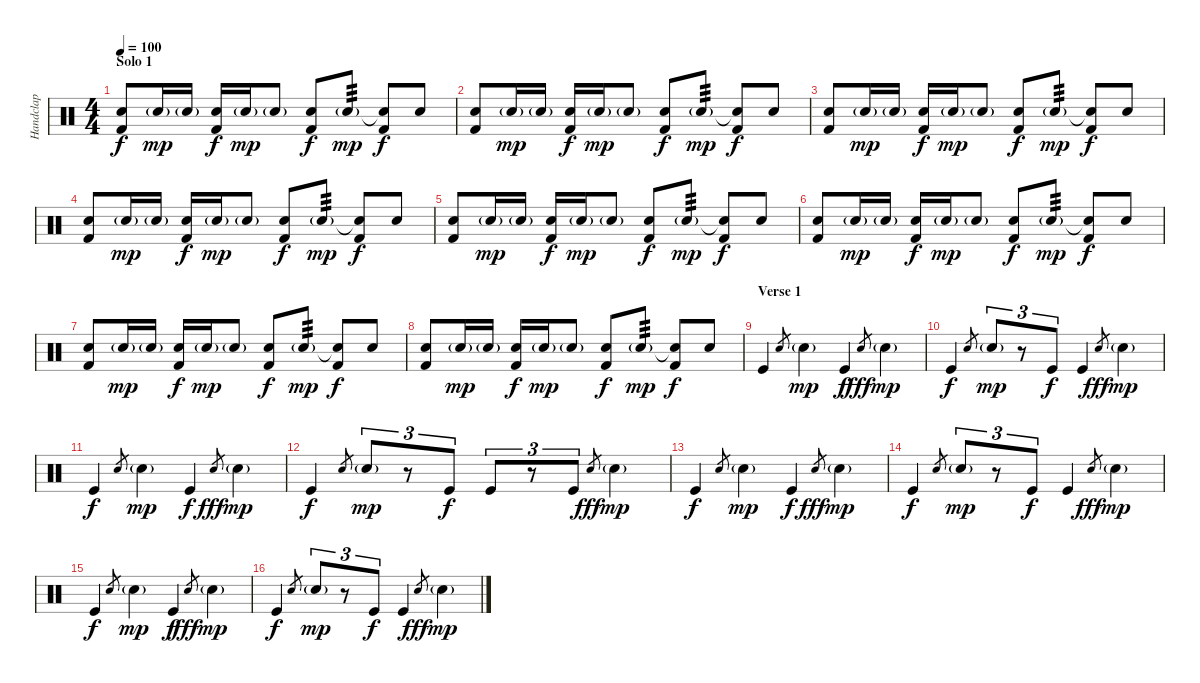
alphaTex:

\track ("Handclap" "Handclap") {instrument percussion}
\staff {score}
\articulation defaults
\ts (4 4)
\section ("" "Solo 1")
\tempo 100
\clef neutral
\ks c
("Snare (hit) 2" "Kick (hit) 2").8{dy f} "Snare (hit) 2"{g}.16{dy mp} "Snare (hit) 2"{g}.16 ("Snare (hit) 2" "Kick (hit) 2").16{dy f} "Snare (hit) 2"{g}.16{dy mp} "Snare (hit) 2"{g}.8 ("Snare (hit) 2" "Kick (hit) 2").8{dy f} "Snare (hit) 2"{g}.8{tp 3 dy mp} ("Snare (hit)"{t} "Kick (hit) 2").8{dy f} "Snare (hit) 2".8 |
("Snare (hit) 2" "Kick (hit) 2").8 "Snare (hit) 2"{g}.16{dy mp} "Snare (hit) 2"{g}.16 ("Snare (hit) 2" "Kick (hit) 2").16{dy f} "Snare (hit) 2"{g}.16{dy mp} "Snare (hit) 2"{g}.8 ("Snare (hit) 2" "Kick (hit) 2").8{dy f} "Snare (hit) 2"{g}.8{tp 3 dy mp} ("Snare (hit)"{t} "Kick (hit) 2").8{dy f} "Snare (hit) 2".8 |
("Snare (hit) 2" "Kick (hit) 2").8 "Snare (hit) 2"{g}.16{dy mp} "Snare (hit) 2"{g}.16 ("Snare (hit) 2" "Kick (hit) 2").16{dy f} "Snare (hit) 2"{g}.16{dy mp} "Snare (hit) 2"{g}.8 ("Snare (hit) 2" "Kick (hit) 2").8{dy f} "Snare (hit) 2"{g}.8{tp 3 dy mp} ("Snare (hit)"{t} "Kick (hit) 2").8{dy f} "Snare (hit) 2".8 |
("Snare (hit) 2" "Kick (hit) 2").8 "Snare (hit) 2"{g}.16{dy mp} "Snare (hit) 2"{g}.16 ("Snare (hit) 2" "Kick (hit) 2").16{dy f} "Snare (hit) 2"{g}.16{dy mp} "Snare (hit) 2"{g}.8 ("Snare (hit) 2" "Kick (hit) 2").8{dy f} "Snare (hit) 2"{g}.8{tp 3 dy mp} ("Snare (hit)"{t} "Kick (hit) 2").8{dy f} "Snare (hit) 2".8 |
("Snare (hit) 2" "Kick (hit) 2").8 "Snare (hit) 2"{g}.16{dy mp} "Snare (hit) 2"{g}.16 ("Snare (hit) 2" "Kick (hit) 2").16{dy f} "Snare (hit) 2"{g}.16{dy mp} "Snare (hit) 2"{g}.8 ("Snare (hit) 2" "Kick (hit) 2").8{dy f} "Snare (hit) 2"{g}.8{tp 3 dy mp} ("Snare (hit)"{t} "Kick (hit) 2").8{dy f} "Snare (hit) 2".8 |
("Snare (hit) 2" "Kick (hit) 2").8 "Snare (hit) 2"{g}.16{dy mp} "Snare (hit) 2"{g}.16 ("Snare (hit) 2" "Kick (hit) 2").16{dy f} "Snare (hit) 2"{g}.16{dy mp} "Snare (hit) 2"{g}.8 ("Snare (hit) 2" "Kick (hit) 2").8{dy f} "Snare (hit) 2"{g}.8{tp 3 dy mp} ("Snare (hit)"{t} "Kick (hit) 2").8{dy f} "Snare (hit) 2".8 |
("Snare (hit) 2" "Kick (hit) 2").8 "Snare (hit) 2"{g}.16{dy mp} "Snare (hit) 2"{g}.16 ("Snare (hit) 2" "Kick (hit) 2").16{dy f} "Snare (hit) 2"{g}.16{dy mp} "Snare (hit) 2"{g}.8 ("Snare (hit) 2" "Kick (hit) 2").8{dy f} "Snare (hit) 2"{g}.8{tp 3 dy mp} ("Snare (hit)"{t} "Kick (hit) 2").8{dy f} "Snare (hit) 2".8 |
("Snare (hit) 2" "Kick (hit) 2").8 "Snare (hit) 2"{g}.16{dy mp} "Snare (hit) 2"{g}.16 ("Snare (hit) 2" "Kick (hit) 2").16{dy f} "Snare (hit) 2"{g}.16{dy mp} "Snare (hit) 2"{g}.8 ("Snare (hit) 2" "Kick (hit) 2").8{dy f} "Snare (hit) 2"{g}.8{tp 3 dy mp} ("Snare (hit)"{t} "Kick (hit) 2").8{dy f} "Snare (hit) 2".8 |
\section ("" "Verse 1")
"Kick (hit)".4 "Hand Clap (hit)".8{gr} "Hand Clap (hit)"{g}.4{dy mp} "Kick (hit)".4{dy f} "Hand Clap (hit)".8{gr dy fff} "Hand Clap (hit)"{g}.4{dy mp} |
"Kick (hit)".4{dy f} "Hand Clap (hit)".8{gr} "Hand Clap (hit)"{g}.8{tu (3 2) dy mp} r.8{tu (3 2)} "Kick (hit)".8{tu (3 2) dy f} "Kick (hit)".4 "Hand Clap (hit)".8{gr dy fff} "Hand Clap (hit)"{g}.4{dy mp} |
"Kick (hit)".4{dy f} "Hand Clap (hit)".8{gr} "Hand Clap (hit)"{g}.4{dy mp} "Kick (hit)".4{dy f} "Hand Clap (hit)".8{gr dy fff} "Hand Clap (hit)"{g}.4{dy mp} |
"Kick (hit)".4{dy f} "Hand Clap (hit)".8{gr} "Hand Clap (hit)"{g}.8{tu (3 2) dy mp} r.8{tu (3 2)} "Kick (hit)".8{tu (3 2) dy f} "Kick (hit)".8{tu (3 2)} r.8{tu (3 2)} "Kick (hit)".8{tu (3 2)} "Hand Clap (hit)".8{gr dy fff} "Hand Clap (hit)"{g}.4{dy mp} |
"Kick (hit)".4{dy f} "Hand Clap (hit)".8{gr} "Hand Clap (hit)"{g}.4{dy mp} "Kick (hit)".4{dy f} "Hand Clap (hit)".8{gr dy fff} "Hand Clap (hit)"{g}.4{dy mp} |
"Kick (hit)".4{dy f} "Hand Clap (hit)".8{gr} "Hand Clap (hit)"{g}.8{tu (3 2) dy mp} r.8{tu (3 2)} "Kick (hit)".8{tu (3 2) dy f} "Kick (hit)".4 "Hand Clap (hit)".8{gr dy fff} "Hand Clap (hit)"{g}.4{dy mp} |
"Kick (hit)".4{dy f} "Hand Clap (hit)".8{gr} "Hand Clap (hit)"{g}.4{dy mp} "Kick (hit)".4{dy f} "Hand Clap (hit)".8{gr dy fff} "Hand Clap (hit)"{g}.4{dy mp} |
"Kick (hit)".4{dy f} "Hand Clap (hit)".8{gr} "Hand Clap (hit)"{g}.8{tu (3 2) dy mp} r.8{tu (3 2)} "Kick (hit)".8{tu (3 2) dy f} "Kick (hit)".4 "Hand Clap (hit)".8{gr dy fff} "Hand Clap (hit)"{g}.4{dy mp}
